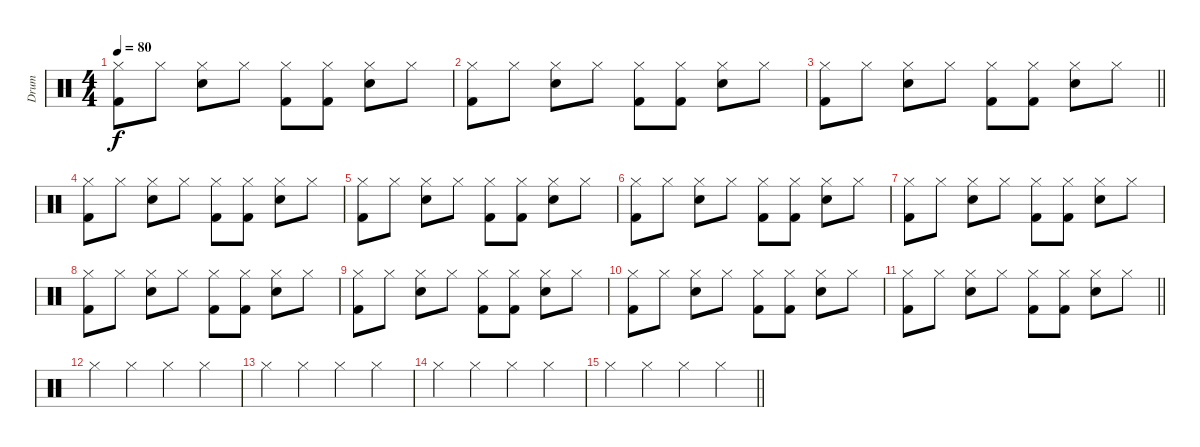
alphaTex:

\track ("Drum" "Drum") {instrument percussion}
\staff {score}
\articulation defaults
\ts (4 4)
\tempo 80
\clef neutral
\ks c
("Hi-Hat (closed)" "Kick (hit) 2").8{dy f} "Hi-Hat (closed)".8 ("Hi-Hat (closed)" "Electric Snare (hit)").8 "Hi-Hat (closed)".8 ("Hi-Hat (closed)" "Kick (hit) 2").8 ("Hi-Hat (closed)" "Kick (hit) 2").8 ("Hi-Hat (closed)" "Electric Snare (hit)").8 "Hi-Hat (closed)".8 |
("Hi-Hat (closed)" "Kick (hit) 2").8 "Hi-Hat (closed)".8 ("Hi-Hat (closed)" "Electric Snare (hit)").8 "Hi-Hat (closed)".8 ("Hi-Hat (closed)" "Kick (hit) 2").8 ("Hi-Hat (closed)" "Kick (hit) 2").8 ("Hi-Hat (closed)" "Electric Snare (hit)").8 "Hi-Hat (closed)".8 |
\barLineRight lightlight
("Hi-Hat (closed)" "Kick (hit) 2").8 "Hi-Hat (closed)".8 ("Hi-Hat (closed)" "Electric Snare (hit)").8 "Hi-Hat (closed)".8 ("Hi-Hat (closed)" "Kick (hit) 2").8 ("Hi-Hat (closed)" "Kick (hit) 2").8 ("Hi-Hat (closed)" "Electric Snare (hit)").8 "Hi-Hat (closed)".8 |
("Hi-Hat (closed)" "Kick (hit) 2").8 "Hi-Hat (closed)".8 ("Hi-Hat (closed)" "Electric Snare (hit)").8 "Hi-Hat (closed)".8 ("Hi-Hat (closed)" "Kick (hit) 2").8 ("Hi-Hat (closed)" "Kick (hit) 2").8 ("Hi-Hat (closed)" "Electric Snare (hit)").8 "Hi-Hat (closed)".8 |
("Hi-Hat (closed)" "Kick (hit) 2").8 "Hi-Hat (closed)".8 ("Hi-Hat (closed)" "Electric Snare (hit)").8 "Hi-Hat (closed)".8 ("Hi-Hat (closed)" "Kick (hit) 2").8 ("Hi-Hat (closed)" "Kick (hit) 2").8 ("Hi-Hat (closed)" "Electric Snare (hit)").8 "Hi-Hat (closed)".8 |
("Hi-Hat (closed)" "Kick (hit) 2").8 "Hi-Hat (closed)".8 ("Hi-Hat (closed)" "Electric Snare (hit)").8 "Hi-Hat (closed)".8 ("Hi-Hat (closed)" "Kick (hit) 2").8 ("Hi-Hat (closed)" "Kick (hit) 2").8 ("Hi-Hat (closed)" "Electric Snare (hit)").8 "Hi-Hat (closed)".8 |
("Hi-Hat (closed)" "Kick (hit) 2").8 "Hi-Hat (closed)".8 ("Hi-Hat (closed)" "Electric Snare (hit)").8 "Hi-Hat (closed)".8 ("Hi-Hat (closed)" "Kick (hit) 2").8 ("Hi-Hat (closed)" "Kick (hit) 2").8 ("Hi-Hat (closed)" "Electric Snare (hit)").8 "Hi-Hat (closed)".8 |
("Hi-Hat (closed)" "Kick (hit) 2").8 "Hi-Hat (closed)".8 ("Hi-Hat (closed)" "Electric Snare (hit)").8 "Hi-Hat (closed)".8 ("Hi-Hat (closed)" "Kick (hit) 2").8 ("Hi-Hat (closed)" "Kick (hit) 2").8 ("Hi-Hat (closed)" "Electric Snare (hit)").8 "Hi-Hat (closed)".8 |
("Hi-Hat (closed)" "Kick (hit) 2").8 "Hi-Hat (closed)".8 ("Hi-Hat (closed)" "Electric Snare (hit)").8 "Hi-Hat (closed)".8 ("Hi-Hat (closed)" "Kick (hit) 2").8 ("Hi-Hat (closed)" "Kick (hit) 2").8 ("Hi-Hat (closed)" "Electric Snare (hit)").8 "Hi-Hat (closed)".8 |
("Hi-Hat (closed)" "Kick (hit) 2").8 "Hi-Hat (closed)".8 ("Hi-Hat (closed)" "Electric Snare (hit)").8 "Hi-Hat (closed)".8 ("Hi-Hat (closed)" "Kick (hit) 2").8 ("Hi-Hat (closed)" "Kick (hit) 2").8 ("Hi-Hat (closed)" "Electric Snare (hit)").8 "Hi-Hat (closed)".8 |
\barLineRight lightlight
("Hi-Hat (closed)" "Kick (hit) 2").8 "Hi-Hat (closed)".8 ("Hi-Hat (closed)" "Electric Snare (hit)").8 "Hi-Hat (closed)".8 ("Hi-Hat (closed)" "Kick (hit) 2").8 ("Hi-Hat (closed)" "Kick (hit) 2").8 ("Hi-Hat (closed)" "Electric Snare (hit)").8 "Hi-Hat (closed)".8 |
"Hi-Hat (closed)".4 "Hi-Hat (closed)".4 "Hi-Hat (closed)".4 "Hi-Hat (closed)".4 |
"Hi-Hat (closed)".4 "Hi-Hat (closed)".4 "Hi-Hat (closed)".4 "Hi-Hat (closed)".4 |
"Hi-Hat (closed)".4 "Hi-Hat (closed)".4 "Hi-Hat (closed)".4 "Hi-Hat (closed)".4 |
\barLineRight lightlight "Hi-Hat (closed)".4 "Hi-Hat (closed)".4 "Hi-Hat (closed)".4 "Hi-Hat (closed)".4
